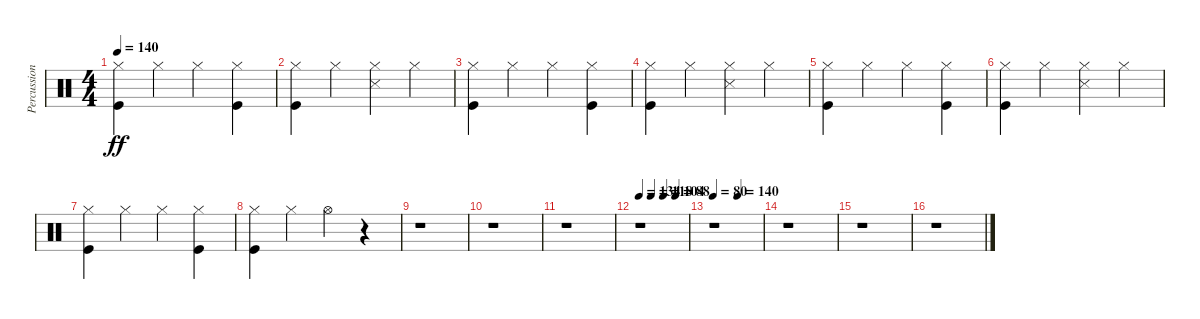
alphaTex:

\track ("Percussions" "Percussion") {instrument percussion}
\staff {score}
\articulation defaults
\ts (4 4)
\tempo 140
\clef neutral
\ks c
("Kick (hit)" "Hi-Hat (closed)").4{dy ff volume 12} "Hi-Hat (closed)".4 "Hi-Hat (closed)".4 ("Kick (hit)" "Hi-Hat (closed)").4 |
("Kick (hit)" "Hi-Hat (closed)").4 "Hi-Hat (closed)".4 ("Snare (side stick) 3" "Hi-Hat (closed)").4 "Hi-Hat (closed)".4 |
("Kick (hit)" "Hi-Hat (closed)").4 "Hi-Hat (closed)".4 "Hi-Hat (closed)".4 ("Kick (hit)" "Hi-Hat (closed)").4 |
("Kick (hit)" "Hi-Hat (closed)").4 "Hi-Hat (closed)".4 ("Snare (side stick) 3" "Hi-Hat (closed)").4 "Hi-Hat (closed)".4 |
("Kick (hit)" "Hi-Hat (closed)").4 "Hi-Hat (closed)".4 "Hi-Hat (closed)".4 ("Kick (hit)" "Hi-Hat (closed)").4 |
("Kick (hit)" "Hi-Hat (closed)").4 "Hi-Hat (closed)".4 ("Snare (side stick) 3" "Hi-Hat (closed)").4 "Hi-Hat (closed)".4 |
("Kick (hit)" "Hi-Hat (closed)").4 "Hi-Hat (closed)".4 "Hi-Hat (closed)".4 ("Kick (hit)" "Hi-Hat (closed)").4 |
("Kick (hit)" "Hi-Hat (closed)").4 "Hi-Hat (closed)".4 "Hi-Hat (open)".4 r.4 |
r.1 |
r.1 |
r.1 |
\tempo 134
\tempo (118 0.25)
\tempo (104 0.5)
\tempo (88 0.75)
r.1 |
\tempo 80
\tempo (140 0.5)
r.1 |
r.1 |
r.1 |
r.1
